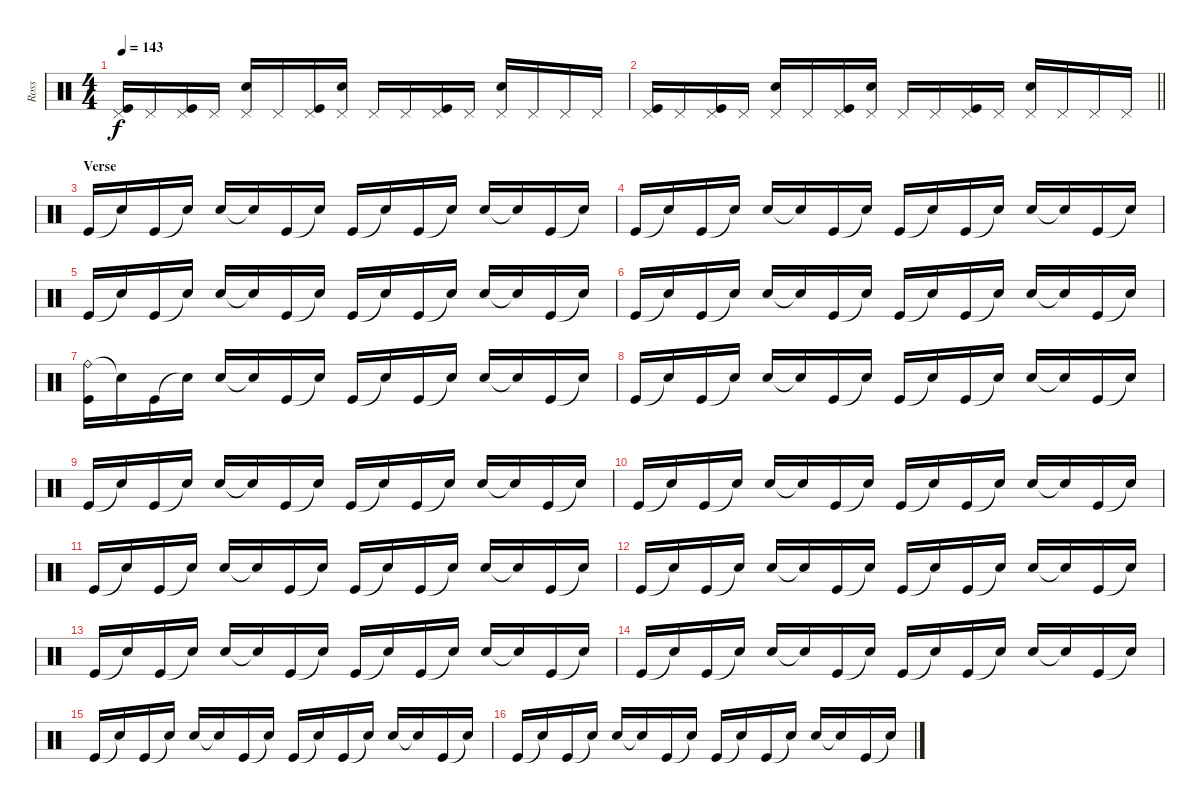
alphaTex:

\track ("Ross" "Ross") {instrument percussion}
\staff {score}
\articulation defaults
\ts (4 4)
\tempo 143
\clef neutral
\ks c
("Pedal Hi-Hat (hit)" "Kick (hit)").16{dy f} "Pedal Hi-Hat (hit)".16 ("Pedal Hi-Hat (hit)" "Kick (hit)").16 "Pedal Hi-Hat (hit)".16 ("Pedal Hi-Hat (hit)" "Snare (hit) 2").16 "Pedal Hi-Hat (hit)".16 ("Pedal Hi-Hat (hit)" "Kick (hit)").16 ("Pedal Hi-Hat (hit)" "Snare (hit) 2").16 "Pedal Hi-Hat (hit)".16 "Pedal Hi-Hat (hit)".16 ("Pedal Hi-Hat (hit)" "Kick (hit)").16 "Pedal Hi-Hat (hit)".16 ("Pedal Hi-Hat (hit)" "Snare (hit) 2").16 "Pedal Hi-Hat (hit)".16 "Pedal Hi-Hat (hit)".16 "Pedal Hi-Hat (hit)".16 |
\barLineRight lightlight
("Pedal Hi-Hat (hit)" "Kick (hit)").16 "Pedal Hi-Hat (hit)".16 ("Pedal Hi-Hat (hit)" "Kick (hit)").16 "Pedal Hi-Hat (hit)".16 ("Pedal Hi-Hat (hit)" "Snare (hit) 2").16 "Pedal Hi-Hat (hit)".16 ("Pedal Hi-Hat (hit)" "Kick (hit)").16 ("Pedal Hi-Hat (hit)" "Snare (hit) 2").16 "Pedal Hi-Hat (hit)".16 "Pedal Hi-Hat (hit)".16 ("Pedal Hi-Hat (hit)" "Kick (hit)").16 "Pedal Hi-Hat (hit)".16 ("Pedal Hi-Hat (hit)" "Snare (hit) 2").16 "Pedal Hi-Hat (hit)".16 "Pedal Hi-Hat (hit)".16 "Pedal Hi-Hat (hit)".16 |
\section ("" "Verse")
"Kick (hit)".16 "Snare (hit)"{t}.16 "Kick (hit)".16 "Snare (hit)"{t}.16 "Snare (hit) 2".16 "Snare (hit)"{t}.16 "Kick (hit)".16 "Snare (hit)"{t}.16 "Kick (hit)".16 "Snare (hit)"{t}.16 "Kick (hit)".16 "Snare (hit)"{t}.16 "Snare (hit) 2".16 "Snare (hit)"{t}.16 "Kick (hit)".16 "Snare (hit)"{t}.16 |
"Kick (hit)".16 "Snare (hit)"{t}.16 "Kick (hit)".16 "Snare (hit)"{t}.16 "Snare (hit) 2".16 "Snare (hit)"{t}.16 "Kick (hit)".16 "Snare (hit)"{t}.16 "Kick (hit)".16 "Snare (hit)"{t}.16 "Kick (hit)".16 "Snare (hit)"{t}.16 "Snare (hit) 2".16 "Snare (hit)"{t}.16 "Kick (hit)".16 "Snare (hit)"{t}.16 |
"Kick (hit)".16 "Snare (hit)"{t}.16 "Kick (hit)".16 "Snare (hit)"{t}.16 "Snare (hit) 2".16 "Snare (hit)"{t}.16 "Kick (hit)".16 "Snare (hit)"{t}.16 "Kick (hit)".16 "Snare (hit)"{t}.16 "Kick (hit)".16 "Snare (hit)"{t}.16 "Snare (hit) 2".16 "Snare (hit)"{t}.16 "Kick (hit)".16 "Snare (hit)"{t}.16 |
"Kick (hit)".16 "Snare (hit)"{t}.16 "Kick (hit)".16 "Snare (hit)"{t}.16 "Snare (hit) 2".16 "Snare (hit)"{t}.16 "Kick (hit)".16 "Snare (hit)"{t}.16 "Kick (hit)".16 "Snare (hit)"{t}.16 "Kick (hit)".16 "Snare (hit)"{t}.16 "Snare (hit) 2".16 "Snare (hit)"{t}.16 "Kick (hit)".16 "Snare (hit)"{t}.16 |
("Ride (bell)" "Kick (hit)").16 "Snare (hit)"{t}.16 "Kick (hit)".16 "Snare (hit)"{t}.16 "Snare (hit) 2".16 "Snare (hit)"{t}.16 "Kick (hit)".16 "Snare (hit)"{t}.16 "Kick (hit)".16 "Snare (hit)"{t}.16 "Kick (hit)".16 "Snare (hit)"{t}.16 "Snare (hit) 2".16 "Snare (hit)"{t}.16 "Kick (hit)".16 "Snare (hit)"{t}.16 |
"Kick (hit)".16 "Snare (hit)"{t}.16 "Kick (hit)".16 "Snare (hit)"{t}.16 "Snare (hit) 2".16 "Snare (hit)"{t}.16 "Kick (hit)".16 "Snare (hit)"{t}.16 "Kick (hit)".16 "Snare (hit)"{t}.16 "Kick (hit)".16 "Snare (hit)"{t}.16 "Snare (hit) 2".16 "Snare (hit)"{t}.16 "Kick (hit)".16 "Snare (hit)"{t}.16 |
"Kick (hit)".16 "Snare (hit)"{t}.16 "Kick (hit)".16 "Snare (hit)"{t}.16 "Snare (hit) 2".16 "Snare (hit)"{t}.16 "Kick (hit)".16 "Snare (hit)"{t}.16 "Kick (hit)".16 "Snare (hit)"{t}.16 "Kick (hit)".16 "Snare (hit)"{t}.16 "Snare (hit) 2".16 "Snare (hit)"{t}.16 "Kick (hit)".16 "Snare (hit)"{t}.16 |
"Kick (hit)".16 "Snare (hit)"{t}.16 "Kick (hit)".16 "Snare (hit)"{t}.16 "Snare (hit) 2".16 "Snare (hit)"{t}.16 "Kick (hit)".16 "Snare (hit)"{t}.16 "Kick (hit)".16 "Snare (hit)"{t}.16 "Kick (hit)".16 "Snare (hit)"{t}.16 "Snare (hit) 2".16 "Snare (hit)"{t}.16 "Kick (hit)".16 "Snare (hit)"{t}.16 |
"Kick (hit)".16 "Snare (hit)"{t}.16 "Kick (hit)".16 "Snare (hit)"{t}.16 "Snare (hit) 2".16 "Snare (hit)"{t}.16 "Kick (hit)".16 "Snare (hit)"{t}.16 "Kick (hit)".16 "Snare (hit)"{t}.16 "Kick (hit)".16 "Snare (hit)"{t}.16 "Snare (hit) 2".16 "Snare (hit)"{t}.16 "Kick (hit)".16 "Snare (hit)"{t}.16 |
"Kick (hit)".16 "Snare (hit)"{t}.16 "Kick (hit)".16 "Snare (hit)"{t}.16 "Snare (hit) 2".16 "Snare (hit)"{t}.16 "Kick (hit)".16 "Snare (hit)"{t}.16 "Kick (hit)".16 "Snare (hit)"{t}.16 "Kick (hit)".16 "Snare (hit)"{t}.16 "Snare (hit) 2".16 "Snare (hit)"{t}.16 "Kick (hit)".16 "Snare (hit)"{t}.16 |
"Kick (hit)".16 "Snare (hit)"{t}.16 "Kick (hit)".16 "Snare (hit)"{t}.16 "Snare (hit) 2".16 "Snare (hit)"{t}.16 "Kick (hit)".16 "Snare (hit)"{t}.16 "Kick (hit)".16 "Snare (hit)"{t}.16 "Kick (hit)".16 "Snare (hit)"{t}.16 "Snare (hit) 2".16 "Snare (hit)"{t}.16 "Kick (hit)".16 "Snare (hit)"{t}.16 |
"Kick (hit)".16 "Snare (hit)"{t}.16 "Kick (hit)".16 "Snare (hit)"{t}.16 "Snare (hit) 2".16 "Snare (hit)"{t}.16 "Kick (hit)".16 "Snare (hit)"{t}.16 "Kick (hit)".16 "Snare (hit)"{t}.16 "Kick (hit)".16 "Snare (hit)"{t}.16 "Snare (hit) 2".16 "Snare (hit)"{t}.16 "Kick (hit)".16 "Snare (hit)"{t}.16 |
"Kick (hit)".16 "Snare (hit)"{t}.16 "Kick (hit)".16 "Snare (hit)"{t}.16 "Snare (hit) 2".16 "Snare (hit)"{t}.16 "Kick (hit)".16 "Snare (hit)"{t}.16 "Kick (hit)".16 "Snare (hit)"{t}.16 "Kick (hit)".16 "Snare (hit)"{t}.16 "Snare (hit) 2".16 "Snare (hit)"{t}.16 "Kick (hit)".16 "Snare (hit)"{t}.16 |
"Kick (hit)".16 "Snare (hit)"{t}.16 "Kick (hit)".16 "Snare (hit)"{t}.16 "Snare (hit) 2".16 "Snare (hit)"{t}.16 "Kick (hit)".16 "Snare (hit)"{t}.16 "Kick (hit)".16 "Snare (hit)"{t}.16 "Kick (hit)".16 "Snare (hit)"{t}.16 "Snare (hit) 2".16 "Snare (hit)"{t}.16 "Kick (hit)".16 "Snare (hit)"{t}.16
